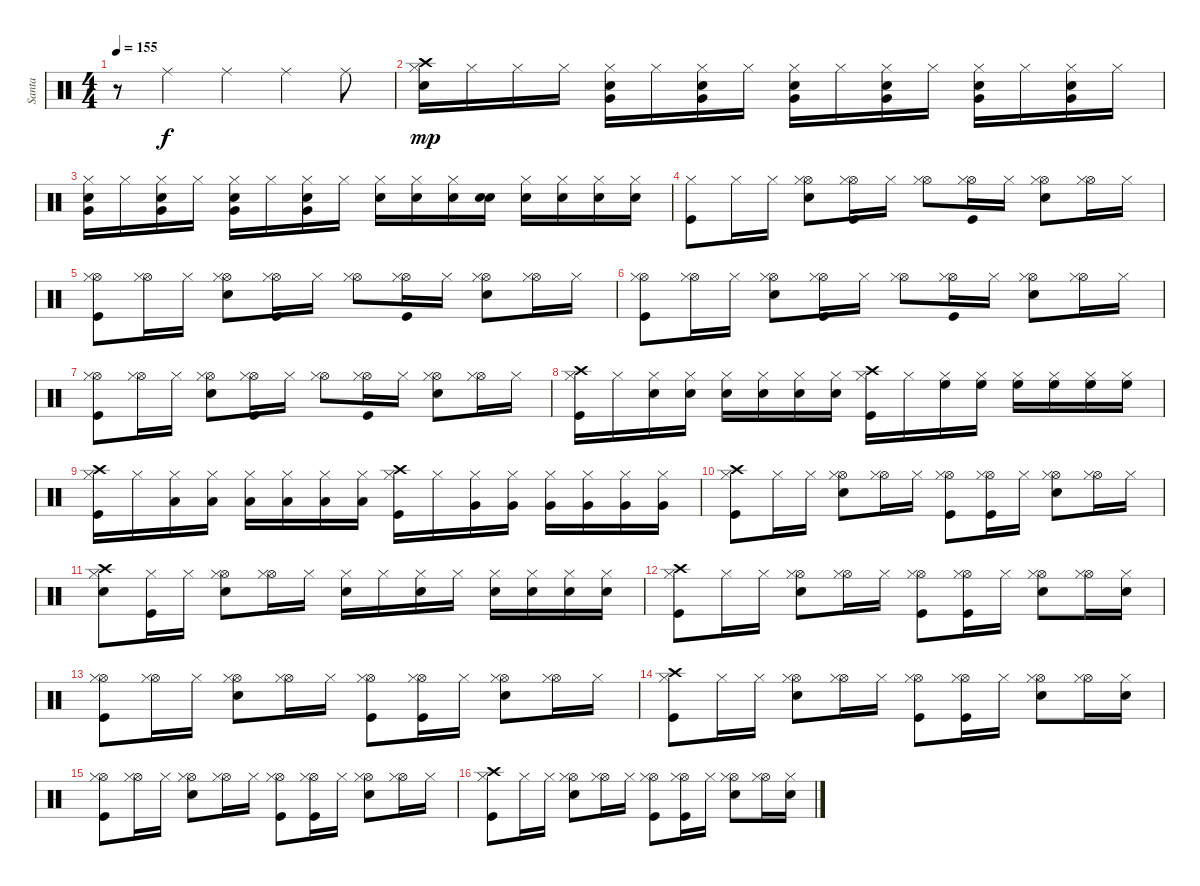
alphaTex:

\track ("Santa" "Santa") {instrument percussion}
\staff {score}
\articulation defaults
\ts (4 4)
\tempo 155
\clef neutral
\ks c
r.8{dy f} "Ride (middle)".4 "Ride (middle)".4 "Ride (middle)".4 "Ride (middle)".8 |
("Crash high (hit)" "Snare (hit) 2" "Hi-Hat (closed)").16{dy mp} "Hi-Hat (closed)".16 "Hi-Hat (closed)".16 "Hi-Hat (closed)".16 ("Snare (hit) 2" "Very Low Tom (hit)" "Hi-Hat (closed)").16 "Hi-Hat (closed)".16 ("Snare (hit) 2" "Very Low Tom (hit)" "Hi-Hat (closed)").16 "Hi-Hat (closed)".16 ("Snare (hit) 2" "Very Low Tom (hit)" "Hi-Hat (closed)").16 "Hi-Hat (closed)".16 ("Snare (hit) 2" "Very Low Tom (hit)" "Hi-Hat (closed)").16 "Hi-Hat (closed)".16 ("Snare (hit) 2" "Very Low Tom (hit)" "Hi-Hat (closed)").16 "Hi-Hat (closed)".16 ("Snare (hit) 2" "Very Low Tom (hit)" "Hi-Hat (closed)").16 "Hi-Hat (closed)".16 |
("Very Low Tom (hit)" "Snare (hit) 2" "Hi-Hat (closed)").16 "Hi-Hat (closed)".16 ("Very Low Tom (hit)" "Snare (hit) 2" "Hi-Hat (closed)").16 "Hi-Hat (closed)".16 ("Very Low Tom (hit)" "Snare (hit) 2" "Hi-Hat (closed)").16 "Hi-Hat (closed)".16 ("Very Low Tom (hit)" "Snare (hit) 2" "Hi-Hat (closed)").16 "Hi-Hat (closed)".16 ("Snare (hit) 2" "Hi-Hat (closed)").16 ("Snare (hit) 2" "Hi-Hat (closed)").16 ("Snare (hit) 2" "Hi-Hat (closed)").16 ("Snare (hit) 2" "Snare (hit)").16 ("Snare (hit) 2" "Hi-Hat (closed)").16 ("Snare (hit) 2" "Hi-Hat (closed)").16 ("Snare (hit) 2" "Hi-Hat (closed)").16 ("Snare (hit) 2" "Hi-Hat (closed)").16 |
("Kick (hit)" "Hi-Hat (closed)").8 "Hi-Hat (closed)".16 "Hi-Hat (closed)".16 ("Hi-Hat (open)" "Snare (hit) 2" "Hi-Hat (closed)").8 ("Kick (hit)" "Hi-Hat (open)" "Hi-Hat (closed)").16 "Hi-Hat (closed)".16 ("Hi-Hat (open)" "Hi-Hat (closed)").8 ("Kick (hit)" "Hi-Hat (open)" "Hi-Hat (closed)").16 "Hi-Hat (closed)".16 ("Hi-Hat (open)" "Snare (hit) 2" "Hi-Hat (closed)").8 ("Hi-Hat (open)" "Hi-Hat (closed)").16 "Hi-Hat (closed)".16 |
("Kick (hit)" "Hi-Hat (open)" "Hi-Hat (closed)").8 ("Hi-Hat (open)" "Hi-Hat (closed)").16 "Hi-Hat (closed)".16 ("Snare (hit) 2" "Hi-Hat (open)" "Hi-Hat (closed)").8 ("Kick (hit)" "Hi-Hat (open)" "Hi-Hat (closed)").16 "Hi-Hat (closed)".16 ("Hi-Hat (open)" "Hi-Hat (closed)").8 ("Kick (hit)" "Hi-Hat (open)" "Hi-Hat (closed)").16 "Hi-Hat (closed)".16 ("Snare (hit) 2" "Hi-Hat (open)" "Hi-Hat (closed)").8 ("Hi-Hat (open)" "Hi-Hat (closed)").16 "Hi-Hat (closed)".16 |
("Kick (hit)" "Hi-Hat (open)" "Hi-Hat (closed)").8 ("Hi-Hat (open)" "Hi-Hat (closed)").16 "Hi-Hat (closed)".16 ("Snare (hit) 2" "Hi-Hat (open)" "Hi-Hat (closed)").8 ("Kick (hit)" "Hi-Hat (open)" "Hi-Hat (closed)").16 "Hi-Hat (closed)".16 ("Hi-Hat (open)" "Hi-Hat (closed)").8 ("Kick (hit)" "Hi-Hat (open)" "Hi-Hat (closed)").16 "Hi-Hat (closed)".16 ("Snare (hit) 2" "Hi-Hat (open)" "Hi-Hat (closed)").8 ("Hi-Hat (open)" "Hi-Hat (closed)").16 "Hi-Hat (closed)".16 |
("Kick (hit)" "Hi-Hat (open)" "Hi-Hat (closed)").8 ("Hi-Hat (open)" "Hi-Hat (closed)").16 "Hi-Hat (closed)".16 ("Snare (hit) 2" "Hi-Hat (open)" "Hi-Hat (closed)").8 ("Kick (hit)" "Hi-Hat (open)" "Hi-Hat (closed)").16 "Hi-Hat (closed)".16 ("Hi-Hat (open)" "Hi-Hat (closed)").8 ("Kick (hit)" "Hi-Hat (open)" "Hi-Hat (closed)").16 "Hi-Hat (closed)".16 ("Snare (hit) 2" "Hi-Hat (open)" "Hi-Hat (closed)").8 ("Hi-Hat (open)" "Hi-Hat (closed)").16 "Hi-Hat (closed)".16 |
("Kick (hit)" "Crash high (hit)" "Hi-Hat (closed)").16 "Hi-Hat (closed)".16 ("Snare (hit) 2" "Hi-Hat (closed)").16 ("Snare (hit) 2" "Hi-Hat (closed)").16 ("Snare (hit) 2" "Hi-Hat (closed)").16 ("Snare (hit) 2" "Hi-Hat (closed)").16 ("Snare (hit) 2" "Hi-Hat (closed)").16 ("Snare (hit) 2" "Hi-Hat (closed)").16 ("Kick (hit)" "Crash high (hit)" "Hi-Hat (closed)").16 "Hi-Hat (closed)".16 ("High Floor Tom (hit)" "Hi-Hat (closed)").16 ("High Floor Tom (hit)" "Hi-Hat (closed)").16 ("High Floor Tom (hit)" "Hi-Hat (closed)").16 ("High Floor Tom (hit)" "Hi-Hat (closed)").16 ("High Floor Tom (hit)" "Hi-Hat (closed)").16 ("High Floor Tom (hit)" "Hi-Hat (closed)").16 |
("Kick (hit)" "Crash high (hit)" "Hi-Hat (closed)").16 "Hi-Hat (closed)".16 ("Low Tom (hit)" "Hi-Hat (closed)").16 ("Low Tom (hit)" "Hi-Hat (closed)").16 ("Low Tom (hit)" "Hi-Hat (closed)").16 ("Low Tom (hit)" "Hi-Hat (closed)").16 ("Low Tom (hit)" "Hi-Hat (closed)").16 ("Low Tom (hit)" "Hi-Hat (closed)").16 ("Kick (hit)" "Crash high (hit)" "Hi-Hat (closed)").16 "Hi-Hat (closed)".16 ("Very Low Tom (hit)" "Hi-Hat (closed)").16 ("Very Low Tom (hit)" "Hi-Hat (closed)").16 ("Very Low Tom (hit)" "Hi-Hat (closed)").16 ("Very Low Tom (hit)" "Hi-Hat (closed)").16 ("Very Low Tom (hit)" "Hi-Hat (closed)").16 ("Very Low Tom (hit)" "Hi-Hat (closed)").16 |
("Kick (hit)" "Crash high (hit)" "Hi-Hat (closed)").8 "Hi-Hat (closed)".16 "Hi-Hat (closed)".16 ("Snare (hit) 2" "Hi-Hat (open)" "Hi-Hat (closed)").8 ("Hi-Hat (open)" "Hi-Hat (closed)").16 "Hi-Hat (closed)".16 ("Kick (hit)" "Hi-Hat (open)" "Hi-Hat (closed)").8 ("Kick (hit)" "Hi-Hat (open)" "Hi-Hat (closed)").16 "Hi-Hat (closed)".16 ("Snare (hit) 2" "Hi-Hat (open)" "Hi-Hat (closed)").8 ("Hi-Hat (open)" "Hi-Hat (closed)").16 "Hi-Hat (closed)".16 |
("Snare (hit) 2" "Crash high (hit)" "Hi-Hat (closed)").8 ("Kick (hit)" "Hi-Hat (closed)").16 "Hi-Hat (closed)".16 ("Snare (hit) 2" "Hi-Hat (open)" "Hi-Hat (closed)").8 ("Hi-Hat (open)" "Hi-Hat (closed)").16 "Hi-Hat (closed)".16 ("Snare (hit) 2" "Hi-Hat (closed)").16 "Hi-Hat (closed)".16 ("Snare (hit) 2" "Hi-Hat (closed)").16 "Hi-Hat (closed)".16 ("Snare (hit) 2" "Hi-Hat (closed)").16 ("Snare (hit) 2" "Hi-Hat (closed)").16 ("Snare (hit) 2" "Hi-Hat (closed)").16 ("Snare (hit) 2" "Hi-Hat (closed)").16 |
("Kick (hit)" "Crash high (hit)" "Hi-Hat (closed)").8 "Hi-Hat (closed)".16 "Hi-Hat (closed)".16 ("Snare (hit) 2" "Hi-Hat (open)" "Hi-Hat (closed)").8 ("Hi-Hat (open)" "Hi-Hat (closed)").16 "Hi-Hat (closed)".16 ("Kick (hit)" "Hi-Hat (open)" "Hi-Hat (closed)").8 ("Kick (hit)" "Hi-Hat (open)" "Hi-Hat (closed)").16 "Hi-Hat (closed)".16 ("Snare (hit) 2" "Hi-Hat (open)" "Hi-Hat (closed)").8 ("Hi-Hat (open)" "Hi-Hat (closed)").16 ("Snare (hit) 2" "Hi-Hat (closed)").16 |
("Kick (hit)" "Hi-Hat (open)" "Hi-Hat (closed)").8 ("Hi-Hat (open)" "Hi-Hat (closed)").16 "Hi-Hat (closed)".16 ("Snare (hit) 2" "Hi-Hat (open)" "Hi-Hat (closed)").8 ("Hi-Hat (open)" "Hi-Hat (closed)").16 "Hi-Hat (closed)".16 ("Kick (hit)" "Hi-Hat (open)" "Hi-Hat (closed)").8 ("Kick (hit)" "Hi-Hat (open)" "Hi-Hat (closed)").16 "Hi-Hat (closed)".16 ("Snare (hit) 2" "Hi-Hat (open)" "Hi-Hat (closed)").8 ("Hi-Hat (open)" "Hi-Hat (closed)").16 "Hi-Hat (closed)".16 |
("Kick (hit)" "Crash high (hit)" "Hi-Hat (closed)").8 "Hi-Hat (closed)".16 "Hi-Hat (closed)".16 ("Snare (hit) 2" "Hi-Hat (open)" "Hi-Hat (closed)").8 ("Hi-Hat (open)" "Hi-Hat (closed)").16 "Hi-Hat (closed)".16 ("Kick (hit)" "Hi-Hat (open)" "Hi-Hat (closed)").8 ("Kick (hit)" "Hi-Hat (open)" "Hi-Hat (closed)").16 "Hi-Hat (closed)".16 ("Snare (hit) 2" "Hi-Hat (open)" "Hi-Hat (closed)").8 ("Hi-Hat (open)" "Hi-Hat (closed)").16 ("Snare (hit) 2" "Hi-Hat (closed)").16 |
("Kick (hit)" "Hi-Hat (open)" "Hi-Hat (closed)").8 ("Hi-Hat (open)" "Hi-Hat (closed)").16 "Hi-Hat (closed)".16 ("Snare (hit) 2" "Hi-Hat (open)" "Hi-Hat (closed)").8 ("Hi-Hat (open)" "Hi-Hat (closed)").16 "Hi-Hat (closed)".16 ("Kick (hit)" "Hi-Hat (open)" "Hi-Hat (closed)").8 ("Kick (hit)" "Hi-Hat (open)" "Hi-Hat (closed)").16 "Hi-Hat (closed)".16 ("Snare (hit) 2" "Hi-Hat (open)" "Hi-Hat (closed)").8 ("Hi-Hat (open)" "Hi-Hat (closed)").16 "Hi-Hat (closed)".16 |
("Kick (hit)" "Crash high (hit)" "Hi-Hat (closed)").8 "Hi-Hat (closed)".16 "Hi-Hat (closed)".16 ("Snare (hit) 2" "Hi-Hat (open)" "Hi-Hat (closed)").8 ("Hi-Hat (open)" "Hi-Hat (closed)").16 "Hi-Hat (closed)".16 ("Kick (hit)" "Hi-Hat (open)" "Hi-Hat (closed)").8 ("Kick (hit)" "Hi-Hat (open)" "Hi-Hat (closed)").16 "Hi-Hat (closed)".16 ("Snare (hit) 2" "Hi-Hat (open)" "Hi-Hat (closed)").8 ("Hi-Hat (open)" "Hi-Hat (closed)").16 ("Snare (hit) 2" "Hi-Hat (closed)").16
